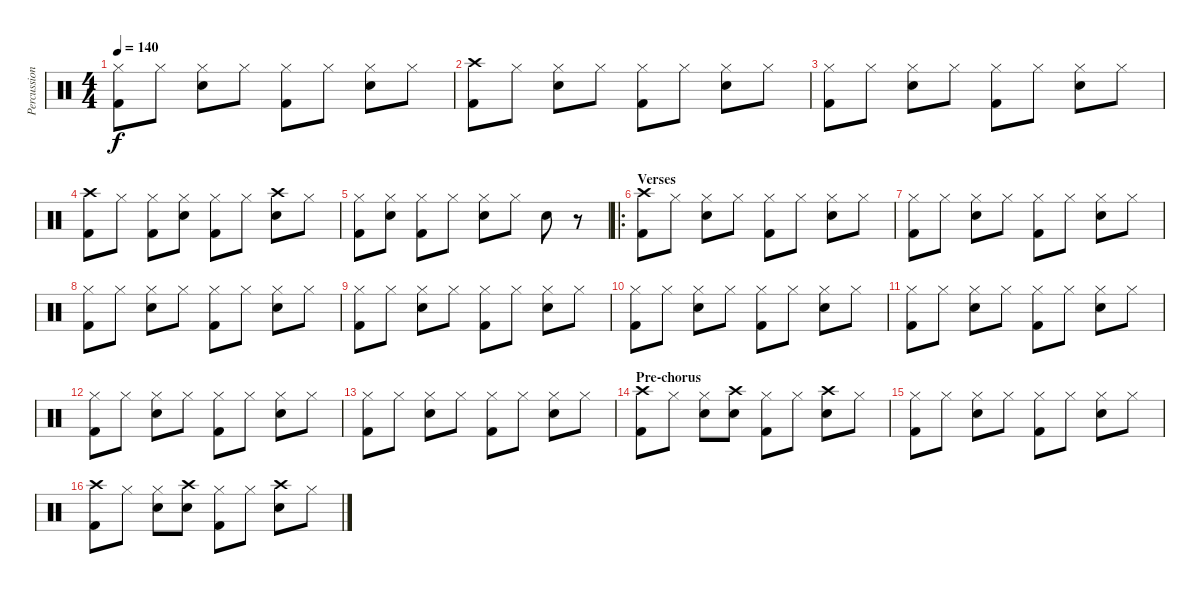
\track ("Percussion" "Percussion") {instrument percussion}
\staff {score}
\articulation defaults
\ts (4 4)
\tempo 140
\clef neutral
\ks c
("Hi-Hat (closed)" "Kick (hit) 2").8{dy f} "Hi-Hat (closed)".8 ("Hi-Hat (closed)" "Electric Snare (hit)").8 "Hi-Hat (closed)".8 ("Hi-Hat (closed)" "Kick (hit) 2").8 "Hi-Hat (closed)".8 ("Hi-Hat (closed)" "Electric Snare (hit)").8 "Hi-Hat (closed)".8 |
("Crash high (hit)" "Kick (hit) 2").8 "Hi-Hat (closed)".8 ("Hi-Hat (closed)" "Electric Snare (hit)").8 "Hi-Hat (closed)".8 ("Hi-Hat (closed)" "Kick (hit) 2").8 "Hi-Hat (closed)".8 ("Hi-Hat (closed)" "Electric Snare (hit)").8 "Hi-Hat (closed)".8 |
("Hi-Hat (closed)" "Kick (hit) 2").8 "Hi-Hat (closed)".8 ("Hi-Hat (closed)" "Electric Snare (hit)").8 "Hi-Hat (closed)".8 ("Hi-Hat (closed)" "Kick (hit) 2").8 "Hi-Hat (closed)".8 ("Hi-Hat (closed)" "Electric Snare (hit)").8 "Hi-Hat (closed)".8 |
("Crash high (hit)" "Kick (hit) 2").8 "Hi-Hat (closed)".8 ("Hi-Hat (closed)" "Kick (hit) 2").8 ("Hi-Hat (closed)" "Electric Snare (hit)").8 ("Hi-Hat (closed)" "Kick (hit) 2").8 "Hi-Hat (closed)".8 ("Crash high (hit)" "Electric Snare (hit)").8 "Hi-Hat (closed)".8 |
("Hi-Hat (closed)" "Kick (hit) 2").8 ("Hi-Hat (closed)" "Electric Snare (hit)").8 ("Hi-Hat (closed)" "Kick (hit) 2").8 "Hi-Hat (closed)".8 ("Hi-Hat (closed)" "Electric Snare (hit)").8 "Hi-Hat (closed)".8 "Electric Snare (hit)".8 r.8 |
\ro
\section ("" "Verses")
("Crash high (hit)" "Kick (hit) 2").8 "Hi-Hat (closed)".8 ("Hi-Hat (closed)" "Electric Snare (hit)").8 "Hi-Hat (closed)".8 ("Hi-Hat (closed)" "Kick (hit) 2").8 "Hi-Hat (closed)".8 ("Hi-Hat (closed)" "Electric Snare (hit)").8 "Hi-Hat (closed)".8 |
("Hi-Hat (closed)" "Kick (hit) 2").8 "Hi-Hat (closed)".8 ("Hi-Hat (closed)" "Electric Snare (hit)").8 "Hi-Hat (closed)".8 ("Hi-Hat (closed)" "Kick (hit) 2").8 "Hi-Hat (closed)".8 ("Hi-Hat (closed)" "Electric Snare (hit)").8 "Hi-Hat (closed)".8 |
("Hi-Hat (closed)" "Kick (hit) 2").8 "Hi-Hat (closed)".8 ("Hi-Hat (closed)" "Electric Snare (hit)").8 "Hi-Hat (closed)".8 ("Hi-Hat (closed)" "Kick (hit) 2").8 "Hi-Hat (closed)".8 ("Hi-Hat (closed)" "Electric Snare (hit)").8 "Hi-Hat (closed)".8 |
("Hi-Hat (closed)" "Kick (hit) 2").8 "Hi-Hat (closed)".8 ("Hi-Hat (closed)" "Electric Snare (hit)").8 "Hi-Hat (closed)".8 ("Hi-Hat (closed)" "Kick (hit) 2").8 "Hi-Hat (closed)".8 ("Hi-Hat (closed)" "Electric Snare (hit)").8 "Hi-Hat (closed)".8 |
("Hi-Hat (closed)" "Kick (hit) 2").8 "Hi-Hat (closed)".8 ("Hi-Hat (closed)" "Electric Snare (hit)").8 "Hi-Hat (closed)".8 ("Hi-Hat (closed)" "Kick (hit) 2").8 "Hi-Hat (closed)".8 ("Hi-Hat (closed)" "Electric Snare (hit)").8 "Hi-Hat (closed)".8 |
("Hi-Hat (closed)" "Kick (hit) 2").8 "Hi-Hat (closed)".8 ("Hi-Hat (closed)" "Electric Snare (hit)").8 "Hi-Hat (closed)".8 ("Hi-Hat (closed)" "Kick (hit) 2").8 "Hi-Hat (closed)".8 ("Hi-Hat (closed)" "Electric Snare (hit)").8 "Hi-Hat (closed)".8 |
("Hi-Hat (closed)" "Kick (hit) 2").8 "Hi-Hat (closed)".8 ("Hi-Hat (closed)" "Electric Snare (hit)").8 "Hi-Hat (closed)".8 ("Hi-Hat (closed)" "Kick (hit) 2").8 "Hi-Hat (closed)".8 ("Hi-Hat (closed)" "Electric Snare (hit)").8 "Hi-Hat (closed)".8 |
("Hi-Hat (closed)" "Kick (hit) 2").8 "Hi-Hat (closed)".8 ("Hi-Hat (closed)" "Electric Snare (hit)").8 "Hi-Hat (closed)".8 ("Hi-Hat (closed)" "Kick (hit) 2").8 "Hi-Hat (closed)".8 ("Hi-Hat (closed)" "Electric Snare (hit)").8 "Hi-Hat (closed)".8 |
\section ("" "Pre-chorus")
("Crash high (hit)" "Kick (hit) 2").8 "Hi-Hat (closed)".8 ("Hi-Hat (closed)" "Electric Snare (hit)").8 ("Crash high (hit)" "Electric Snare (hit)").8 ("Hi-Hat (closed)" "Kick (hit) 2").8 "Hi-Hat (closed)".8 ("Crash high (hit)" "Electric Snare (hit)").8 "Hi-Hat (closed)".8 |
("Hi-Hat (closed)" "Kick (hit) 2").8 "Hi-Hat (closed)".8 ("Hi-Hat (closed)" "Electric Snare (hit)").8 "Hi-Hat (closed)".8 ("Hi-Hat (closed)" "Kick (hit) 2").8 "Hi-Hat (closed)".8 ("Hi-Hat (closed)" "Electric Snare (hit)").8 "Hi-Hat (closed)".8 |
("Crash high (hit)" "Kick (hit) 2").8 "Hi-Hat (closed)".8 ("Hi-Hat (closed)" "Electric Snare (hit)").8 ("Crash high (hit)" "Electric Snare (hit)").8 ("Hi-Hat (closed)" "Kick (hit) 2").8 "Hi-Hat (closed)".8 ("Crash high (hit)" "Electric Snare (hit)").8 "Hi-Hat (closed)".8
